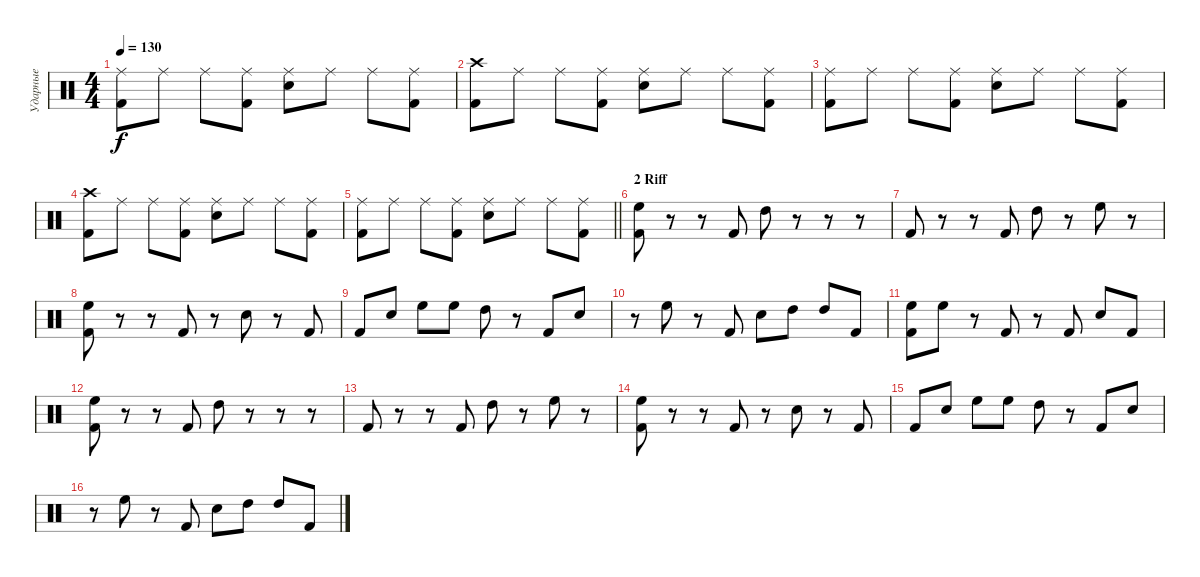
\track ("Ударные" "Ударные") {instrument percussion}
\staff {score}
\articulation defaults
\ts (4 4)
\tempo 130
\clef neutral
\ks c
("Ride (middle)" "Kick (hit) 2").8{dy f} "Ride (middle)".8 "Ride (middle)".8 ("Ride (middle)" "Kick (hit) 2").8 ("Ride (middle)" "Electric Snare (hit)").8 "Ride (middle)".8 "Ride (middle)".8 ("Ride (middle)" "Kick (hit) 2").8 |
("Crash high (hit)" "Kick (hit) 2").8 "Ride (middle)".8 "Ride (middle)".8 ("Ride (middle)" "Kick (hit) 2").8 ("Ride (middle)" "Electric Snare (hit)").8 "Ride (middle)".8 "Ride (middle)".8 ("Ride (middle)" "Kick (hit) 2").8 |
("Ride (middle)" "Kick (hit) 2").8 "Ride (middle)".8 "Ride (middle)".8 ("Ride (middle)" "Kick (hit) 2").8 ("Ride (middle)" "Electric Snare (hit)").8 "Ride (middle)".8 "Ride (middle)".8 ("Ride (middle)" "Kick (hit) 2").8 |
("Crash high (hit)" "Kick (hit) 2").8 "Ride (middle)".8 "Ride (middle)".8 ("Ride (middle)" "Kick (hit) 2").8 ("Ride (middle)" "Electric Snare (hit)").8 "Ride (middle)".8 "Ride (middle)".8 ("Ride (middle)" "Kick (hit) 2").8 |
\barLineRight lightlight
("Ride (middle)" "Kick (hit) 2").8 "Ride (middle)".8 "Ride (middle)".8 ("Ride (middle)" "Kick (hit) 2").8 ("Ride (middle)" "Electric Snare (hit)").8 "Ride (middle)".8 "Ride (middle)".8 ("Ride (middle)" "Kick (hit) 2").8 |
\section ("" "2 Riff")
("High Floor Tom (hit)" "Kick (hit) 2").8 r.8 r.8 "Kick (hit) 2".8 "High Tom (hit)".8 r.8 r.8 r.8 |
"Kick (hit) 2".8 r.8 r.8 "Kick (hit) 2".8 "High Tom (hit)".8 r.8 "High Floor Tom (hit)".8 r.8 |
("High Floor Tom (hit)" "Kick (hit) 2").8 r.8 r.8 "Kick (hit) 2".8 r.8 "Electric Snare (hit)".8 r.8 "Kick (hit) 2".8 |
"Kick (hit) 2".8 "Electric Snare (hit)".8 "High Floor Tom (hit)".8 "High Floor Tom (hit)".8 "High Tom (hit)".8 r.8 "Kick (hit) 2".8 "Electric Snare (hit)".8 |
r.8 "High Floor Tom (hit)".8 r.8 "Kick (hit) 2".8 "Electric Snare (hit)".8 "High Tom (hit)".8 "High Tom (hit)".8 "Kick (hit) 2".8 |
("High Floor Tom (hit)" "Kick (hit) 2").8 "High Floor Tom (hit)".8 r.8 "Kick (hit) 2".8 r.8 "Kick (hit) 2".8 "Electric Snare (hit)".8 "Kick (hit) 2".8 |
("High Floor Tom (hit)" "Kick (hit) 2").8 r.8 r.8 "Kick (hit) 2".8 "High Tom (hit)".8 r.8 r.8 r.8 |
"Kick (hit) 2".8 r.8 r.8 "Kick (hit) 2".8 "High Tom (hit)".8 r.8 "High Floor Tom (hit)".8 r.8 |
("High Floor Tom (hit)" "Kick (hit) 2").8 r.8 r.8 "Kick (hit) 2".8 r.8 "Electric Snare (hit)".8 r.8 "Kick (hit) 2".8 |
"Kick (hit) 2".8 "Electric Snare (hit)".8 "High Floor Tom (hit)".8 "High Floor Tom (hit)".8 "High Tom (hit)".8 r.8 "Kick (hit) 2".8 "Electric Snare (hit)".8 |
r.8 "High Floor Tom (hit)".8 r.8 "Kick (hit) 2".8 "Electric Snare (hit)".8 "High Tom (hit)".8 "High Tom (hit)".8 "Kick (hit) 2".8
